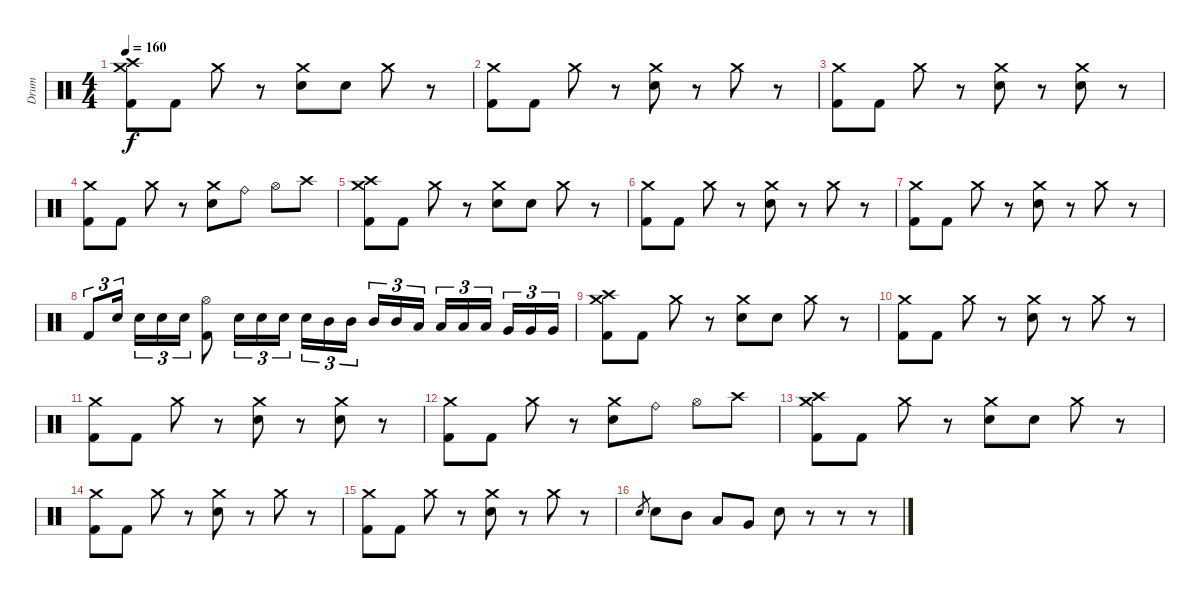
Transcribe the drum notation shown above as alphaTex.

\track ("Drum" "Drum") {instrument percussion}
\staff {score}
\articulation defaults
\ts (4 4)
\tempo 160
\clef neutral
\ks c
("Crash high (hit)" "Crash medium (hit)" "Kick (hit) 2").8{dy f} "Kick (hit) 2".8 "Crash medium (hit)".8 r.8 ("Crash medium (hit)" "Electric Snare (hit)").8 "Electric Snare (hit)".8 "Crash medium (hit)".8 r.8 |
("Crash medium (hit)" "Kick (hit) 2").8 "Kick (hit) 2".8 "Crash medium (hit)".8 r.8 ("Crash medium (hit)" "Electric Snare (hit)").8 r.8 "Crash medium (hit)".8 r.8 |
("Crash medium (hit)" "Kick (hit) 2").8 "Kick (hit) 2".8 "Crash medium (hit)".8 r.8 ("Crash medium (hit)" "Electric Snare (hit)").8 r.8 ("Crash medium (hit)" "Electric Snare (hit)").8 r.8 |
("Crash medium (hit)" "Kick (hit) 2").8 "Kick (hit) 2".8 "Crash medium (hit)".8 r.8 ("Crash medium (hit)" "Electric Snare (hit)").8 "Ride (bell)".8 "Hi-Hat (open)".8 "Crash high (hit)".8 |
("Crash high (hit)" "Crash medium (hit)" "Kick (hit) 2").8 "Kick (hit) 2".8 "Crash medium (hit)".8 r.8 ("Crash medium (hit)" "Electric Snare (hit)").8 "Electric Snare (hit)".8 "Crash medium (hit)".8 r.8 |
("Crash medium (hit)" "Kick (hit) 2").8 "Kick (hit) 2".8 "Crash medium (hit)".8 r.8 ("Crash medium (hit)" "Electric Snare (hit)").8 r.8 "Crash medium (hit)".8 r.8 |
("Crash medium (hit)" "Kick (hit) 2").8 "Kick (hit) 2".8 "Crash medium (hit)".8 r.8 ("Crash medium (hit)" "Electric Snare (hit)").8 r.8 "Crash medium (hit)".8 r.8 |
"Kick (hit) 2".8{tu (3 2)} "Electric Snare (hit)".16{tu (3 2) beam splitsecondary} "Electric Snare (hit)".16{tu (3 2)} "Electric Snare (hit)".16{tu (3 2)} "Electric Snare (hit)".16{tu (3 2)} ("Hi-Hat (open)" "Kick (hit) 2").8 "Electric Snare (hit)".16{tu (3 2)} "Electric Snare (hit)".16{tu (3 2)} "Electric Snare (hit)".16{tu (3 2)} "Electric Snare (hit)".16{tu (3 2)} "Mid Tom (hit)".16{tu (3 2)} "Mid Tom (hit)".16{tu (3 2) beam splitsecondary} "Mid Tom (hit)".16{tu (3 2)} "Mid Tom (hit)".16{tu (3 2)} "Low Tom (hit)".16{tu (3 2)} "Low Tom (hit)".16{tu (3 2)} "Low Tom (hit)".16{tu (3 2)} "Low Tom (hit)".16{tu (3 2) beam splitsecondary} "Very Low Tom (hit)".16{tu (3 2)} "Very Low Tom (hit)".16{tu (3 2)} "Very Low Tom (hit)".16{tu (3 2)} |
("Crash high (hit)" "Crash medium (hit)" "Kick (hit) 2").8 "Kick (hit) 2".8 "Crash medium (hit)".8 r.8 ("Crash medium (hit)" "Electric Snare (hit)").8 "Electric Snare (hit)".8 "Crash medium (hit)".8 r.8 |
("Crash medium (hit)" "Kick (hit) 2").8 "Kick (hit) 2".8 "Crash medium (hit)".8 r.8 ("Crash medium (hit)" "Electric Snare (hit)").8 r.8 "Crash medium (hit)".8 r.8 |
("Crash medium (hit)" "Kick (hit) 2").8 "Kick (hit) 2".8 "Crash medium (hit)".8 r.8 ("Crash medium (hit)" "Electric Snare (hit)").8 r.8 ("Crash medium (hit)" "Electric Snare (hit)").8 r.8 |
("Crash medium (hit)" "Kick (hit) 2").8 "Kick (hit) 2".8 "Crash medium (hit)".8 r.8 ("Crash medium (hit)" "Electric Snare (hit)").8 "Ride (bell)".8 "Hi-Hat (open)".8 "Crash high (hit)".8 |
("Crash high (hit)" "Crash medium (hit)" "Kick (hit) 2").8 "Kick (hit) 2".8 "Crash medium (hit)".8 r.8 ("Crash medium (hit)" "Electric Snare (hit)").8 "Electric Snare (hit)".8 "Crash medium (hit)".8 r.8 |
("Crash medium (hit)" "Kick (hit) 2").8 "Kick (hit) 2".8 "Crash medium (hit)".8 r.8 ("Crash medium (hit)" "Electric Snare (hit)").8 r.8 "Crash medium (hit)".8 r.8 |
("Crash medium (hit)" "Kick (hit) 2").8 "Kick (hit) 2".8 "Crash medium (hit)".8 r.8 ("Crash medium (hit)" "Electric Snare (hit)").8 r.8 "Crash medium (hit)".8 r.8 |
"Electric Snare (hit)".8{gr} "Electric Snare (hit)".8 "Mid Tom (hit)".8 "Low Tom (hit)".8 "Very Low Tom (hit)".8 "Electric Snare (hit)".8 r.8 r.8 r.8
